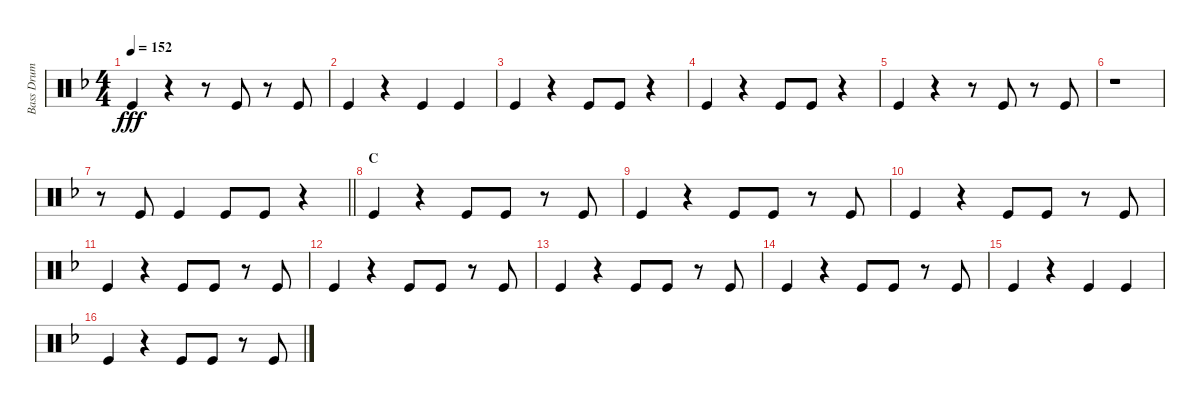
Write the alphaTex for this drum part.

\track ("Bass Drum" "Bass Drum") {instrument percussion}
\staff {score}
\articulation defaults
\ts (4 4)
\tempo 152
\clef neutral
\ks f "Kick (hit)".4{dy fff}
r.4 r.8 "Kick (hit)".8 r.8 "Kick (hit)".8 |
"Kick (hit)".4 r.4 "Kick (hit)".4 "Kick (hit)".4 |
"Kick (hit)".4 r.4 "Kick (hit)".8 "Kick (hit)".8 r.4 |
"Kick (hit)".4 r.4 "Kick (hit)".8 "Kick (hit)".8 r.4 |
"Kick (hit)".4 r.4 r.8 "Kick (hit)".8 r.8 "Kick (hit)".8 |
r.1 |
\barLineRight lightlight
r.8 "Kick (hit)".8 "Kick (hit)".4 "Kick (hit)".8 "Kick (hit)".8 r.4 |
\section ("" "C")
"Kick (hit)".4 r.4 "Kick (hit)".8 "Kick (hit)".8 r.8 "Kick (hit)".8 |
"Kick (hit)".4 r.4 "Kick (hit)".8 "Kick (hit)".8 r.8 "Kick (hit)".8 |
"Kick (hit)".4 r.4 "Kick (hit)".8 "Kick (hit)".8 r.8 "Kick (hit)".8 |
"Kick (hit)".4 r.4 "Kick (hit)".8 "Kick (hit)".8 r.8 "Kick (hit)".8 |
"Kick (hit)".4 r.4 "Kick (hit)".8 "Kick (hit)".8 r.8 "Kick (hit)".8 |
"Kick (hit)".4 r.4 "Kick (hit)".8 "Kick (hit)".8 r.8 "Kick (hit)".8 |
"Kick (hit)".4 r.4 "Kick (hit)".8 "Kick (hit)".8 r.8 "Kick (hit)".8 |
"Kick (hit)".4 r.4 "Kick (hit)".4 "Kick (hit)".4 |
"Kick (hit)".4 r.4 "Kick (hit)".8 "Kick (hit)".8 r.8 "Kick (hit)".8
